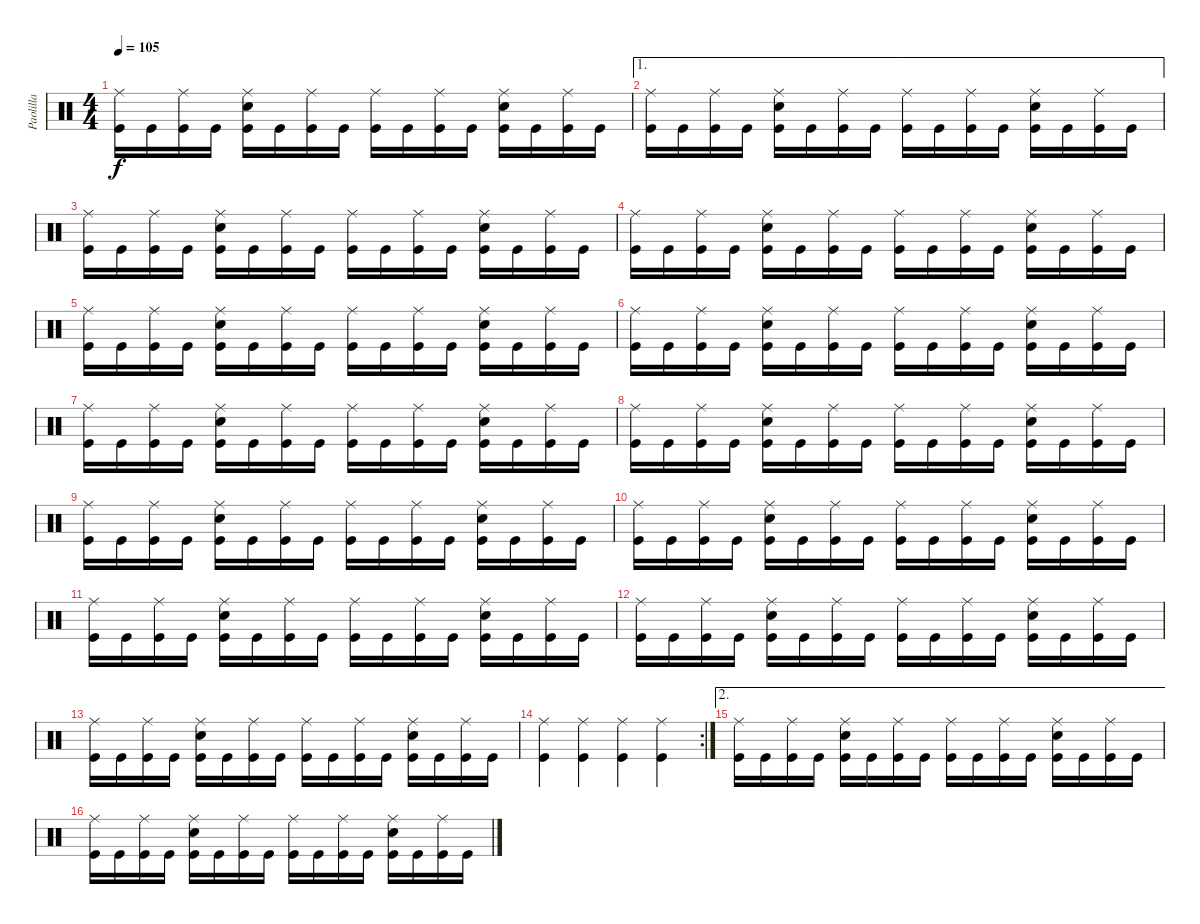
\track ("Paolilla" "Paolilla") {instrument percussion}
\staff {score}
\articulation defaults
\ts (4 4)
\tempo 105
\clef neutral
\ks c
("Ride (middle)" "Kick (hit)").16{dy f} "Kick (hit)".16 ("Ride (middle)" "Kick (hit)").16 "Kick (hit)".16 ("Ride (middle)" "Snare (hit) 2" "Kick (hit)").16 "Kick (hit)".16 ("Ride (middle)" "Kick (hit)").16 "Kick (hit)".16 ("Ride (middle)" "Kick (hit)").16 "Kick (hit)".16 ("Ride (middle)" "Kick (hit)").16 "Kick (hit)".16 ("Ride (middle)" "Snare (hit) 2" "Kick (hit)").16 "Kick (hit)".16 ("Ride (middle)" "Kick (hit)").16 "Kick (hit)".16 |
\ae 1
("Ride (middle)" "Kick (hit)").16 "Kick (hit)".16 ("Ride (middle)" "Kick (hit)").16 "Kick (hit)".16 ("Ride (middle)" "Snare (hit) 2" "Kick (hit)").16 "Kick (hit)".16 ("Ride (middle)" "Kick (hit)").16 "Kick (hit)".16 ("Ride (middle)" "Kick (hit)").16 "Kick (hit)".16 ("Ride (middle)" "Kick (hit)").16 "Kick (hit)".16 ("Ride (middle)" "Snare (hit) 2" "Kick (hit)").16 "Kick (hit)".16 ("Ride (middle)" "Kick (hit)").16 "Kick (hit)".16 |
("Ride (middle)" "Kick (hit)").16 "Kick (hit)".16 ("Ride (middle)" "Kick (hit)").16 "Kick (hit)".16 ("Ride (middle)" "Snare (hit) 2" "Kick (hit)").16 "Kick (hit)".16 ("Ride (middle)" "Kick (hit)").16 "Kick (hit)".16 ("Ride (middle)" "Kick (hit)").16 "Kick (hit)".16 ("Ride (middle)" "Kick (hit)").16 "Kick (hit)".16 ("Ride (middle)" "Snare (hit) 2" "Kick (hit)").16 "Kick (hit)".16 ("Ride (middle)" "Kick (hit)").16 "Kick (hit)".16 |
("Ride (middle)" "Kick (hit)").16 "Kick (hit)".16 ("Ride (middle)" "Kick (hit)").16 "Kick (hit)".16 ("Ride (middle)" "Snare (hit) 2" "Kick (hit)").16 "Kick (hit)".16 ("Ride (middle)" "Kick (hit)").16 "Kick (hit)".16 ("Ride (middle)" "Kick (hit)").16 "Kick (hit)".16 ("Ride (middle)" "Kick (hit)").16 "Kick (hit)".16 ("Ride (middle)" "Snare (hit) 2" "Kick (hit)").16 "Kick (hit)".16 ("Ride (middle)" "Kick (hit)").16 "Kick (hit)".16 |
("Ride (middle)" "Kick (hit)").16 "Kick (hit)".16 ("Ride (middle)" "Kick (hit)").16 "Kick (hit)".16 ("Ride (middle)" "Snare (hit) 2" "Kick (hit)").16 "Kick (hit)".16 ("Ride (middle)" "Kick (hit)").16 "Kick (hit)".16 ("Ride (middle)" "Kick (hit)").16 "Kick (hit)".16 ("Ride (middle)" "Kick (hit)").16 "Kick (hit)".16 ("Ride (middle)" "Snare (hit) 2" "Kick (hit)").16 "Kick (hit)".16 ("Ride (middle)" "Kick (hit)").16 "Kick (hit)".16 |
("Ride (middle)" "Kick (hit)").16 "Kick (hit)".16 ("Ride (middle)" "Kick (hit)").16 "Kick (hit)".16 ("Ride (middle)" "Snare (hit) 2" "Kick (hit)").16 "Kick (hit)".16 ("Ride (middle)" "Kick (hit)").16 "Kick (hit)".16 ("Ride (middle)" "Kick (hit)").16 "Kick (hit)".16 ("Ride (middle)" "Kick (hit)").16 "Kick (hit)".16 ("Ride (middle)" "Snare (hit) 2" "Kick (hit)").16 "Kick (hit)".16 ("Ride (middle)" "Kick (hit)").16 "Kick (hit)".16 |
("Ride (middle)" "Kick (hit)").16 "Kick (hit)".16 ("Ride (middle)" "Kick (hit)").16 "Kick (hit)".16 ("Ride (middle)" "Snare (hit) 2" "Kick (hit)").16 "Kick (hit)".16 ("Ride (middle)" "Kick (hit)").16 "Kick (hit)".16 ("Ride (middle)" "Kick (hit)").16 "Kick (hit)".16 ("Ride (middle)" "Kick (hit)").16 "Kick (hit)".16 ("Ride (middle)" "Snare (hit) 2" "Kick (hit)").16 "Kick (hit)".16 ("Ride (middle)" "Kick (hit)").16 "Kick (hit)".16 |
("Ride (middle)" "Kick (hit)").16 "Kick (hit)".16 ("Ride (middle)" "Kick (hit)").16 "Kick (hit)".16 ("Ride (middle)" "Snare (hit) 2" "Kick (hit)").16 "Kick (hit)".16 ("Ride (middle)" "Kick (hit)").16 "Kick (hit)".16 ("Ride (middle)" "Kick (hit)").16 "Kick (hit)".16 ("Ride (middle)" "Kick (hit)").16 "Kick (hit)".16 ("Ride (middle)" "Snare (hit) 2" "Kick (hit)").16 "Kick (hit)".16 ("Ride (middle)" "Kick (hit)").16 "Kick (hit)".16 |
("Ride (middle)" "Kick (hit)").16 "Kick (hit)".16 ("Ride (middle)" "Kick (hit)").16 "Kick (hit)".16 ("Ride (middle)" "Snare (hit) 2" "Kick (hit)").16 "Kick (hit)".16 ("Ride (middle)" "Kick (hit)").16 "Kick (hit)".16 ("Ride (middle)" "Kick (hit)").16 "Kick (hit)".16 ("Ride (middle)" "Kick (hit)").16 "Kick (hit)".16 ("Ride (middle)" "Snare (hit) 2" "Kick (hit)").16 "Kick (hit)".16 ("Ride (middle)" "Kick (hit)").16 "Kick (hit)".16 |
("Ride (middle)" "Kick (hit)").16 "Kick (hit)".16 ("Ride (middle)" "Kick (hit)").16 "Kick (hit)".16 ("Ride (middle)" "Snare (hit) 2" "Kick (hit)").16 "Kick (hit)".16 ("Ride (middle)" "Kick (hit)").16 "Kick (hit)".16 ("Ride (middle)" "Kick (hit)").16 "Kick (hit)".16 ("Ride (middle)" "Kick (hit)").16 "Kick (hit)".16 ("Ride (middle)" "Snare (hit) 2" "Kick (hit)").16 "Kick (hit)".16 ("Ride (middle)" "Kick (hit)").16 "Kick (hit)".16 |
("Ride (middle)" "Kick (hit)").16 "Kick (hit)".16 ("Ride (middle)" "Kick (hit)").16 "Kick (hit)".16 ("Ride (middle)" "Snare (hit) 2" "Kick (hit)").16 "Kick (hit)".16 ("Ride (middle)" "Kick (hit)").16 "Kick (hit)".16 ("Ride (middle)" "Kick (hit)").16 "Kick (hit)".16 ("Ride (middle)" "Kick (hit)").16 "Kick (hit)".16 ("Ride (middle)" "Snare (hit) 2" "Kick (hit)").16 "Kick (hit)".16 ("Ride (middle)" "Kick (hit)").16 "Kick (hit)".16 |
("Ride (middle)" "Kick (hit)").16 "Kick (hit)".16 ("Ride (middle)" "Kick (hit)").16 "Kick (hit)".16 ("Ride (middle)" "Snare (hit) 2" "Kick (hit)").16 "Kick (hit)".16 ("Ride (middle)" "Kick (hit)").16 "Kick (hit)".16 ("Ride (middle)" "Kick (hit)").16 "Kick (hit)".16 ("Ride (middle)" "Kick (hit)").16 "Kick (hit)".16 ("Ride (middle)" "Snare (hit) 2" "Kick (hit)").16 "Kick (hit)".16 ("Ride (middle)" "Kick (hit)").16 "Kick (hit)".16 |
("Ride (middle)" "Kick (hit)").16 "Kick (hit)".16 ("Ride (middle)" "Kick (hit)").16 "Kick (hit)".16 ("Ride (middle)" "Snare (hit) 2" "Kick (hit)").16 "Kick (hit)".16 ("Ride (middle)" "Kick (hit)").16 "Kick (hit)".16 ("Ride (middle)" "Kick (hit)").16 "Kick (hit)".16 ("Ride (middle)" "Kick (hit)").16 "Kick (hit)".16 ("Ride (middle)" "Snare (hit) 2" "Kick (hit)").16 "Kick (hit)".16 ("Ride (middle)" "Kick (hit)").16 "Kick (hit)".16 |
\rc 2
("Ride (middle)" "Kick (hit)").4 ("Ride (middle)" "Kick (hit)").4 ("Ride (middle)" "Kick (hit)").4 ("Ride (middle)" "Kick (hit)").4 |
\ae 2
("Ride (middle)" "Kick (hit)").16 "Kick (hit)".16 ("Ride (middle)" "Kick (hit)").16 "Kick (hit)".16 ("Ride (middle)" "Snare (hit) 2" "Kick (hit)").16 "Kick (hit)".16 ("Ride (middle)" "Kick (hit)").16 "Kick (hit)".16 ("Ride (middle)" "Kick (hit)").16 "Kick (hit)".16 ("Ride (middle)" "Kick (hit)").16 "Kick (hit)".16 ("Ride (middle)" "Snare (hit) 2" "Kick (hit)").16 "Kick (hit)".16 ("Ride (middle)" "Kick (hit)").16 "Kick (hit)".16 |
("Ride (middle)" "Kick (hit)").16 "Kick (hit)".16 ("Ride (middle)" "Kick (hit)").16 "Kick (hit)".16 ("Ride (middle)" "Snare (hit) 2" "Kick (hit)").16 "Kick (hit)".16 ("Ride (middle)" "Kick (hit)").16 "Kick (hit)".16 ("Ride (middle)" "Kick (hit)").16 "Kick (hit)".16 ("Ride (middle)" "Kick (hit)").16 "Kick (hit)".16 ("Ride (middle)" "Snare (hit) 2" "Kick (hit)").16 "Kick (hit)".16 ("Ride (middle)" "Kick (hit)").16 "Kick (hit)".16
